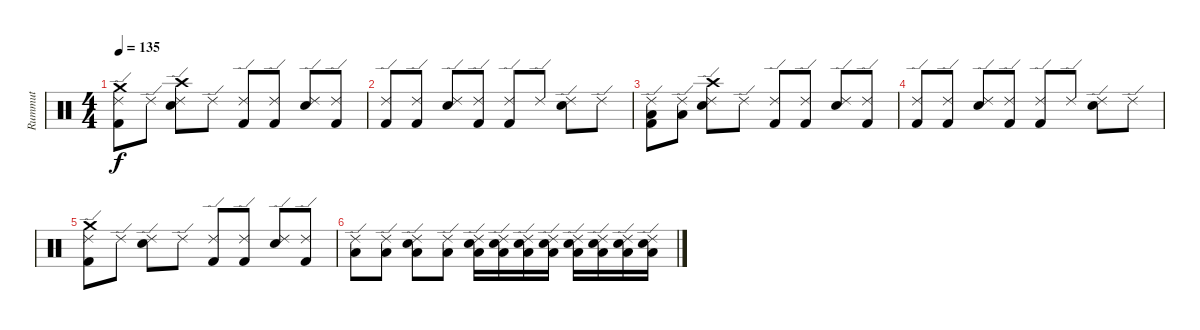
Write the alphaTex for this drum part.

\track ("Rummut" "Rummut") {instrument percussion}
\staff {score}
\articulation defaults
\ts (4 4)
\tempo 135
\clef neutral
\ks c
("Crash medium (hit)" "Ride (edge) 2" "Kick (hit) 2").8{dy f} "Ride (edge) 2".8 ("Crash high (hit)" "Ride (edge) 2" "Snare (hit) 2").8 "Ride (edge) 2".8 ("Ride (edge) 2" "Kick (hit) 2").8 ("Ride (edge) 2" "Kick (hit) 2").8 ("Ride (edge) 2" "Snare (hit) 2").8 ("Ride (edge) 2" "Kick (hit) 2").8 |
("Ride (edge) 2" "Kick (hit) 2").8 ("Ride (edge) 2" "Kick (hit) 2").8 ("Ride (edge) 2" "Snare (hit) 2").8 ("Ride (edge) 2" "Kick (hit) 2").8 ("Ride (edge) 2" "Kick (hit) 2").8 "Ride (edge) 2".8 ("Ride (edge) 2" "Snare (hit) 2").8 "Ride (edge) 2".8 |
("Low Tom (hit)" "Ride (edge) 2" "Kick (hit) 2").8 ("Low Tom (hit)" "Ride (edge) 2").8 ("Crash high (hit)" "Ride (edge) 2" "Snare (hit) 2").8 "Ride (edge) 2".8 ("Ride (edge) 2" "Kick (hit) 2").8 ("Ride (edge) 2" "Kick (hit) 2").8 ("Ride (edge) 2" "Snare (hit) 2").8 ("Ride (edge) 2" "Kick (hit) 2").8 |
("Ride (edge) 2" "Kick (hit) 2").8 ("Ride (edge) 2" "Kick (hit) 2").8 ("Ride (edge) 2" "Snare (hit) 2").8 ("Ride (edge) 2" "Kick (hit) 2").8 ("Ride (edge) 2" "Kick (hit) 2").8 "Ride (edge) 2".8 ("Ride (edge) 2" "Snare (hit) 2").8 "Ride (edge) 2".8 |
("Crash medium (hit)" "Ride (edge) 2" "Kick (hit) 2").8 "Ride (edge) 2".8 ("Ride (edge) 2" "Snare (hit) 2").8 "Ride (edge) 2".8 ("Ride (edge) 2" "Kick (hit) 2").8 ("Ride (edge) 2" "Kick (hit) 2").8 ("Ride (edge) 2" "Snare (hit) 2").8 ("Ride (edge) 2" "Kick (hit) 2").8 |
("Ride (edge) 2" "Low Tom (hit)").8 ("Ride (edge) 2" "Low Tom (hit)").8 ("Ride (edge) 2" "Low Tom (hit)" "Snare (hit) 2").8 ("Ride (edge) 2" "Low Tom (hit)").8 ("Ride (edge) 2" "Low Tom (hit)" "Snare (hit) 2").16 ("Ride (edge) 2" "Low Tom (hit)" "Snare (hit) 2").16 ("Ride (edge) 2" "Low Tom (hit)" "Snare (hit) 2").16 ("Ride (edge) 2" "Low Tom (hit)" "Snare (hit) 2").16 ("Ride (edge) 2" "Snare (hit) 2" "Low Tom (hit)").16 ("Ride (edge) 2" "Snare (hit) 2" "Low Tom (hit)").16 ("Ride (edge) 2" "Snare (hit) 2" "Low Tom (hit)").16 ("Ride (edge) 2" "Snare (hit) 2" "Low Tom (hit)").16
